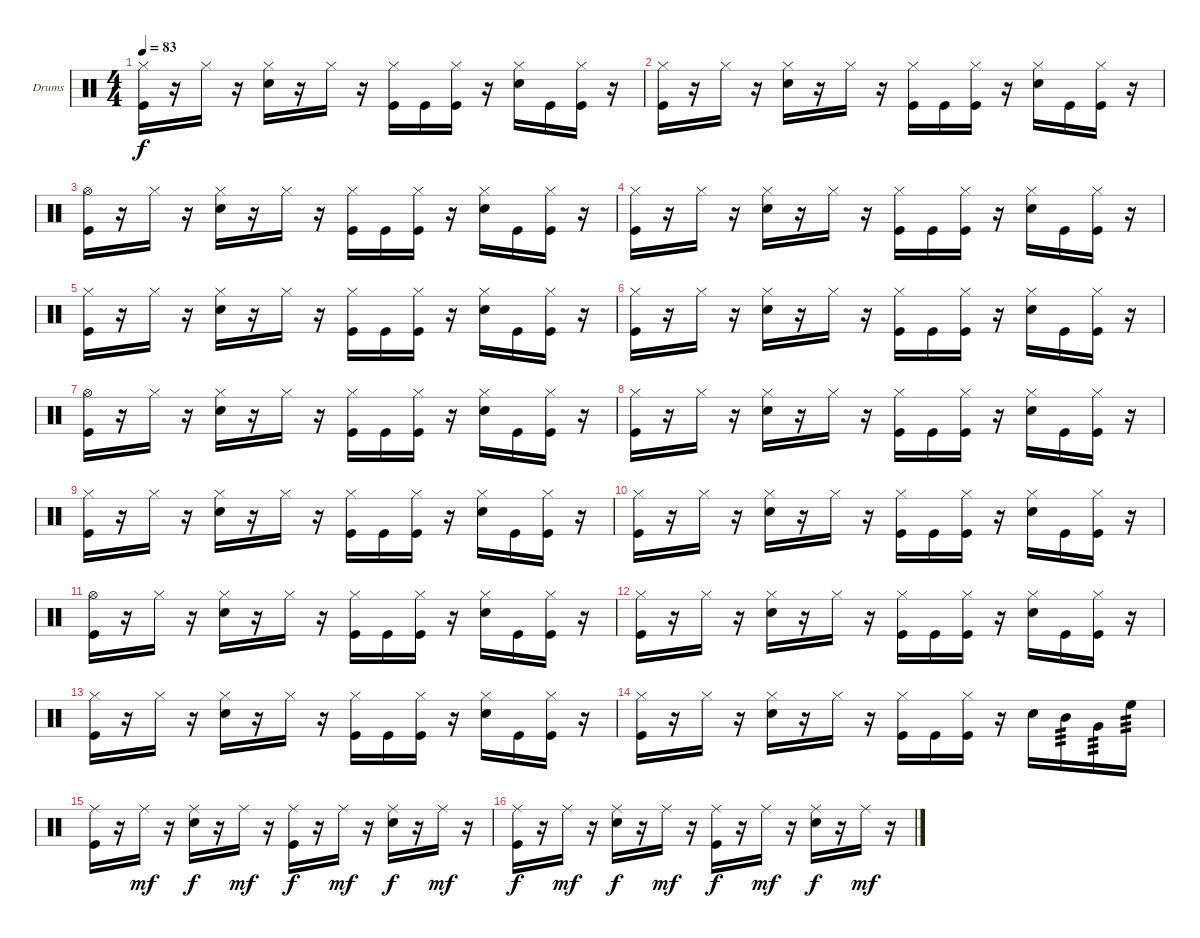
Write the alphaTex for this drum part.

\bracketExtendMode groupsimilarinstruments
\firstSystemTrackNameOrientation horizontal
\otherSystemsTrackNameOrientation horizontal
\track ("Drumkit" "Drums") {instrument percussion}
\staff {score}
\articulation defaults
\ts (4 4)
\tempo 83
\clef neutral
\ks c
("Hi-Hat (closed)" "Kick (hit)").16{dy f} r.16 "Hi-Hat (closed)".16 r.16 ("Hi-Hat (closed)" "Snare (hit) 2").16 r.16 "Hi-Hat (closed)".16 r.16 ("Hi-Hat (closed)" "Kick (hit)").16 "Kick (hit)".16 ("Hi-Hat (closed)" "Kick (hit)").16 r.16 ("Hi-Hat (closed)" "Snare (hit) 2").16 "Kick (hit)".16 ("Hi-Hat (closed)" "Kick (hit)").16 r.16 |
("Hi-Hat (closed)" "Kick (hit)").16 r.16 "Hi-Hat (closed)".16 r.16 ("Hi-Hat (closed)" "Snare (hit) 2").16 r.16 "Hi-Hat (closed)".16 r.16 ("Hi-Hat (closed)" "Kick (hit)").16 "Kick (hit)".16 ("Hi-Hat (closed)" "Kick (hit)").16 r.16 ("Hi-Hat (closed)" "Snare (hit) 2").16 "Kick (hit)".16 ("Hi-Hat (closed)" "Kick (hit)").16 r.16 |
("Hi-Hat (open)" "Kick (hit)").16 r.16 "Hi-Hat (closed)".16 r.16 ("Hi-Hat (closed)" "Snare (hit) 2").16 r.16 "Hi-Hat (closed)".16 r.16 ("Hi-Hat (closed)" "Kick (hit)").16 "Kick (hit)".16 ("Hi-Hat (closed)" "Kick (hit)").16 r.16 ("Hi-Hat (closed)" "Snare (hit) 2").16 "Kick (hit)".16 ("Hi-Hat (closed)" "Kick (hit)").16 r.16 |
("Hi-Hat (closed)" "Kick (hit)").16 r.16 "Hi-Hat (closed)".16 r.16 ("Hi-Hat (closed)" "Snare (hit) 2").16 r.16 "Hi-Hat (closed)".16 r.16 ("Hi-Hat (closed)" "Kick (hit)").16 "Kick (hit)".16 ("Hi-Hat (closed)" "Kick (hit)").16 r.16 ("Hi-Hat (closed)" "Snare (hit) 2").16 "Kick (hit)".16 ("Hi-Hat (closed)" "Kick (hit)").16 r.16 |
("Hi-Hat (closed)" "Kick (hit)").16 r.16 "Hi-Hat (closed)".16 r.16 ("Hi-Hat (closed)" "Snare (hit) 2").16 r.16 "Hi-Hat (closed)".16 r.16 ("Hi-Hat (closed)" "Kick (hit)").16 "Kick (hit)".16 ("Hi-Hat (closed)" "Kick (hit)").16 r.16 ("Hi-Hat (closed)" "Snare (hit) 2").16 "Kick (hit)".16 ("Hi-Hat (closed)" "Kick (hit)").16 r.16 |
("Hi-Hat (closed)" "Kick (hit)").16 r.16 "Hi-Hat (closed)".16 r.16 ("Hi-Hat (closed)" "Snare (hit) 2").16 r.16 "Hi-Hat (closed)".16 r.16 ("Hi-Hat (closed)" "Kick (hit)").16 "Kick (hit)".16 ("Hi-Hat (closed)" "Kick (hit)").16 r.16 ("Hi-Hat (closed)" "Snare (hit) 2").16 "Kick (hit)".16 ("Hi-Hat (closed)" "Kick (hit)").16 r.16 |
("Hi-Hat (open)" "Kick (hit)").16 r.16 "Hi-Hat (closed)".16 r.16 ("Hi-Hat (closed)" "Snare (hit) 2").16 r.16 "Hi-Hat (closed)".16 r.16 ("Hi-Hat (closed)" "Kick (hit)").16 "Kick (hit)".16 ("Hi-Hat (closed)" "Kick (hit)").16 r.16 ("Hi-Hat (closed)" "Snare (hit) 2").16 "Kick (hit)".16 ("Hi-Hat (closed)" "Kick (hit)").16 r.16 |
("Hi-Hat (closed)" "Kick (hit)").16 r.16 "Hi-Hat (closed)".16 r.16 ("Hi-Hat (closed)" "Snare (hit) 2").16 r.16 "Hi-Hat (closed)".16 r.16 ("Hi-Hat (closed)" "Kick (hit)").16 "Kick (hit)".16 ("Hi-Hat (closed)" "Kick (hit)").16 r.16 ("Hi-Hat (closed)" "Snare (hit) 2").16 "Kick (hit)".16 ("Hi-Hat (closed)" "Kick (hit)").16 r.16 |
("Hi-Hat (closed)" "Kick (hit)").16 r.16 "Hi-Hat (closed)".16 r.16 ("Hi-Hat (closed)" "Snare (hit) 2").16 r.16 "Hi-Hat (closed)".16 r.16 ("Hi-Hat (closed)" "Kick (hit)").16 "Kick (hit)".16 ("Hi-Hat (closed)" "Kick (hit)").16 r.16 ("Hi-Hat (closed)" "Snare (hit) 2").16 "Kick (hit)".16 ("Hi-Hat (closed)" "Kick (hit)").16 r.16 |
("Hi-Hat (closed)" "Kick (hit)").16 r.16 "Hi-Hat (closed)".16 r.16 ("Hi-Hat (closed)" "Snare (hit) 2").16 r.16 "Hi-Hat (closed)".16 r.16 ("Hi-Hat (closed)" "Kick (hit)").16 "Kick (hit)".16 ("Hi-Hat (closed)" "Kick (hit)").16 r.16 ("Hi-Hat (closed)" "Snare (hit) 2").16 "Kick (hit)".16 ("Hi-Hat (closed)" "Kick (hit)").16 r.16 |
("Hi-Hat (open)" "Kick (hit)").16 r.16 "Hi-Hat (closed)".16 r.16 ("Hi-Hat (closed)" "Snare (hit) 2").16 r.16 "Hi-Hat (closed)".16 r.16 ("Hi-Hat (closed)" "Kick (hit)").16 "Kick (hit)".16 ("Hi-Hat (closed)" "Kick (hit)").16 r.16 ("Hi-Hat (closed)" "Snare (hit) 2").16 "Kick (hit)".16 ("Hi-Hat (closed)" "Kick (hit)").16 r.16 |
("Hi-Hat (closed)" "Kick (hit)").16 r.16 "Hi-Hat (closed)".16 r.16 ("Hi-Hat (closed)" "Snare (hit) 2").16 r.16 "Hi-Hat (closed)".16 r.16 ("Hi-Hat (closed)" "Kick (hit)").16 "Kick (hit)".16 ("Hi-Hat (closed)" "Kick (hit)").16 r.16 ("Hi-Hat (closed)" "Snare (hit) 2").16 "Kick (hit)".16 ("Hi-Hat (closed)" "Kick (hit)").16 r.16 |
("Hi-Hat (closed)" "Kick (hit)").16 r.16 "Hi-Hat (closed)".16 r.16 ("Hi-Hat (closed)" "Snare (hit) 2").16 r.16 "Hi-Hat (closed)".16 r.16 ("Hi-Hat (closed)" "Kick (hit)").16 "Kick (hit)".16 ("Hi-Hat (closed)" "Kick (hit)").16 r.16 ("Hi-Hat (closed)" "Snare (hit) 2").16 "Kick (hit)".16 ("Hi-Hat (closed)" "Kick (hit)").16 r.16 |
("Hi-Hat (closed)" "Kick (hit)").16 r.16 "Hi-Hat (closed)".16 r.16 ("Hi-Hat (closed)" "Snare (hit) 2").16 r.16 "Hi-Hat (closed)".16 r.16 ("Hi-Hat (closed)" "Kick (hit)").16 "Kick (hit)".16 ("Hi-Hat (closed)" "Kick (hit)").16 r.16 "Snare (hit) 2".16 "Mid Tom (hit)".16{tp 3} "Very Low Tom (hit)".16{tp 3} "High Floor Tom (hit)".16{tp 3} |
("Kick (hit)" "Ride (middle)").16 r.16 "Ride (middle)".16{dy mf} r.16 ("Snare (hit) 2" "Ride (middle)").16{dy f} r.16 "Ride (middle)".16{dy mf} r.16 ("Kick (hit)" "Ride (middle)").16{dy f} r.16 "Ride (middle)".16{dy mf} r.16 ("Snare (hit) 2" "Ride (middle)").16{dy f} r.16 "Ride (middle)".16{dy mf} r.16 |
("Kick (hit)" "Ride (middle)").16{dy f} r.16 "Ride (middle)".16{dy mf} r.16 ("Snare (hit) 2" "Ride (middle)").16{dy f} r.16 "Ride (middle)".16{dy mf} r.16 ("Kick (hit)" "Ride (middle)").16{dy f} r.16 "Ride (middle)".16{dy mf} r.16 ("Snare (hit) 2" "Ride (middle)").16{dy f} r.16 "Ride (middle)".16{dy mf} r.16
